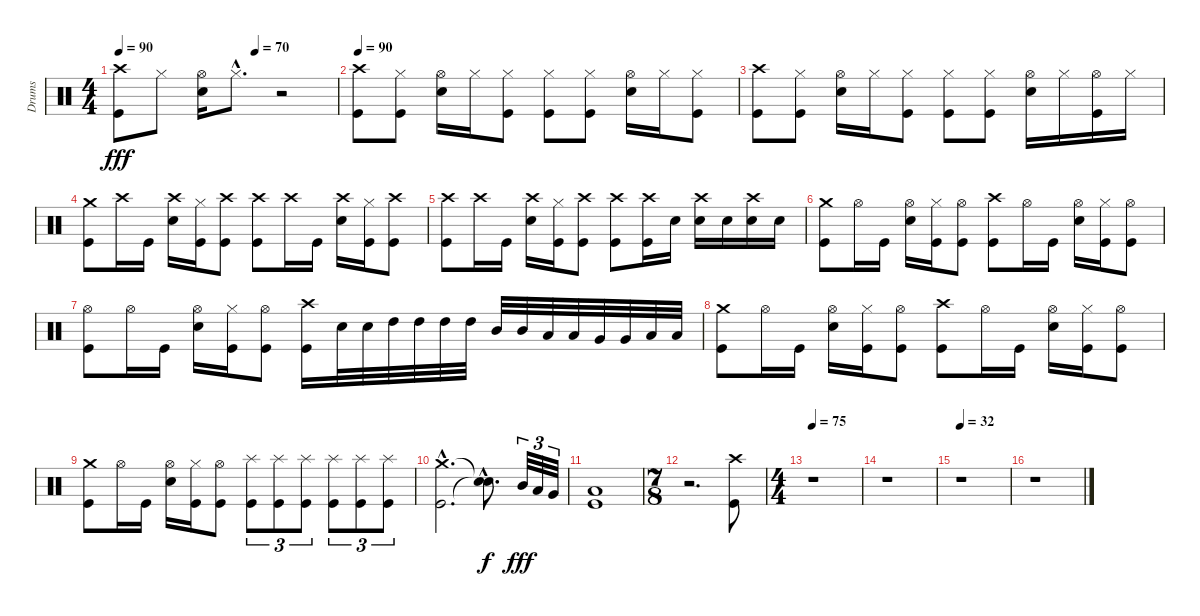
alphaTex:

\track ("Drums" "Drums") {instrument percussion}
\staff {score}
\articulation defaults
\ts (4 4)
\tempo 90
\tempo (70 0.625)
\clef neutral
\ks c
("Crash high (hit)" "Kick (hit)").8{dy fff} "Hi-Hat (closed)".8 ("Hi-Hat (open)" "Snare (hit) 2").16 "Hi-Hat (closed)"{hac}.8{d} r.2 |
\tempo 90
("Crash high (hit)" "Kick (hit)").8 ("Hi-Hat (closed)" "Kick (hit)").8 ("Hi-Hat (open)" "Snare (hit) 2").16 "Hi-Hat (closed)".16 ("Hi-Hat (closed)" "Kick (hit)").8 ("Hi-Hat (closed)" "Kick (hit)").8 ("Hi-Hat (closed)" "Kick (hit)").8 ("Hi-Hat (open)" "Snare (hit) 2").16 "Hi-Hat (closed)".16 ("Hi-Hat (closed)" "Kick (hit)").8 |
("Crash high (hit)" "Kick (hit)").8 ("Hi-Hat (closed)" "Kick (hit)").8 ("Hi-Hat (open)" "Snare (hit) 2").16 "Hi-Hat (closed)".16 ("Hi-Hat (closed)" "Kick (hit)").8 ("Hi-Hat (closed)" "Kick (hit)").8 ("Hi-Hat (closed)" "Kick (hit)").8 ("Hi-Hat (open)" "Snare (hit) 2").16 "Hi-Hat (closed)".16 ("Hi-Hat (open)" "Kick (hit)").16 "Hi-Hat (closed)".16 |
("Crash medium (hit)" "Kick (hit)").8 "Crash high (hit)".16 "Kick (hit)".16 ("Crash high (hit)" "Snare (hit) 2").16 ("Hi-Hat (closed)" "Kick (hit)").16 ("Crash high (hit)" "Kick (hit)").8 ("Crash high (hit)" "Kick (hit)").8 "Crash high (hit)".16 "Kick (hit)".16 ("Crash high (hit)" "Snare (hit) 2").16 ("Hi-Hat (closed)" "Kick (hit)").16 ("Crash high (hit)" "Kick (hit)").8 |
("Crash high (hit)" "Kick (hit)").8 "Crash high (hit)".16 "Kick (hit)".16 ("Crash high (hit)" "Snare (hit) 2").16 ("Hi-Hat (closed)" "Kick (hit)").16 ("Crash high (hit)" "Kick (hit)").8 ("Crash high (hit)" "Kick (hit)").8 ("Crash high (hit)" "Kick (hit)").16 "Snare (hit) 2".16 ("Crash high (hit)" "Snare (hit) 2").16 "Snare (hit) 2".16 ("Crash high (hit)" "Snare (hit) 2").16 "Snare (hit) 2".16 |
("Crash medium (hit)" "Kick (hit)").8 "Hi-Hat (open)".16 "Kick (hit)".16 ("Hi-Hat (open)" "Snare (hit) 2").16 ("Hi-Hat (closed)" "Kick (hit)").16 ("Hi-Hat (open)" "Kick (hit)").8 ("Crash high (hit)" "Kick (hit)").8 "Hi-Hat (open)".16 "Kick (hit)".16 ("Hi-Hat (open)" "Snare (hit) 2").16 ("Hi-Hat (closed)" "Kick (hit)").16 ("Hi-Hat (open)" "Kick (hit)").8 |
("Hi-Hat (open)" "Kick (hit)").8 "Hi-Hat (open)".16 "Kick (hit)".16 ("Hi-Hat (open)" "Snare (hit) 2").16 ("Hi-Hat (closed)" "Kick (hit)").16 ("Hi-Hat (open)" "Kick (hit)").8 ("Crash high (hit)" "Kick (hit)").16 "Snare (hit) 2".32 "Snare (hit) 2".32 "High Tom (hit)".32 "High Tom (hit)".32 "High Tom (hit)".32 "High Tom (hit)".32 "Mid Tom (hit)".32 "Mid Tom (hit)".32 "Low Tom (hit)".32 "Low Tom (hit)".32 "Very Low Tom (hit)".32 "Very Low Tom (hit)".32 "Low Floor Tom (hit)".32 "Low Floor Tom (hit)".32 |
("Crash medium (hit)" "Kick (hit)").8 "Hi-Hat (open)".16 "Kick (hit)".16 ("Hi-Hat (open)" "Snare (hit) 2").16 ("Hi-Hat (closed)" "Kick (hit)").16 ("Hi-Hat (open)" "Kick (hit)").8 ("Crash high (hit)" "Kick (hit)").8 "Hi-Hat (open)".16 "Kick (hit)".16 ("Hi-Hat (open)" "Snare (hit) 2").16 ("Hi-Hat (closed)" "Kick (hit)").16 ("Hi-Hat (open)" "Kick (hit)").8 |
("Crash medium (hit)" "Kick (hit)").8 "Hi-Hat (open)".16 "Kick (hit)".16 ("Hi-Hat (open)" "Snare (hit) 2").16 ("Hi-Hat (closed)" "Kick (hit)").16 ("Hi-Hat (open)" "Kick (hit)").8 ("Splash (hit)" "Kick (hit)").8{tu (3 2)} ("Splash (hit)" "Kick (hit)").8{tu (3 2)} ("Splash (hit)" "Kick (hit)").8{tu (3 2)} ("Splash (hit)" "Kick (hit)").8{tu (3 2)} ("Splash (hit)" "Kick (hit)").8{tu (3 2)} ("Splash (hit)" "Kick (hit)").8{tu (3 2)} |
("Crash medium (hit)"{hac} "Kick (hit)"{hac}).2{d} ("Snare (hit)"{hac t} "Snare (hit)"{hac t}).8{d dy f} "Mid Tom (hit)".32{tu (3 2) dy fff} "Low Tom (hit)".32{tu (3 2)} "Very Low Tom (hit)".32{tu (3 2)} |
("Low Floor Tom (hit)" "Kick (hit)").1 |
\ts (7 8)
r.2{d} ("Crash high (hit)" "Kick (hit)").8 |
\ts (4 4)
\tempo 75
r.1 |
r.1 |
\tempo 32
r.1 |
r.1
